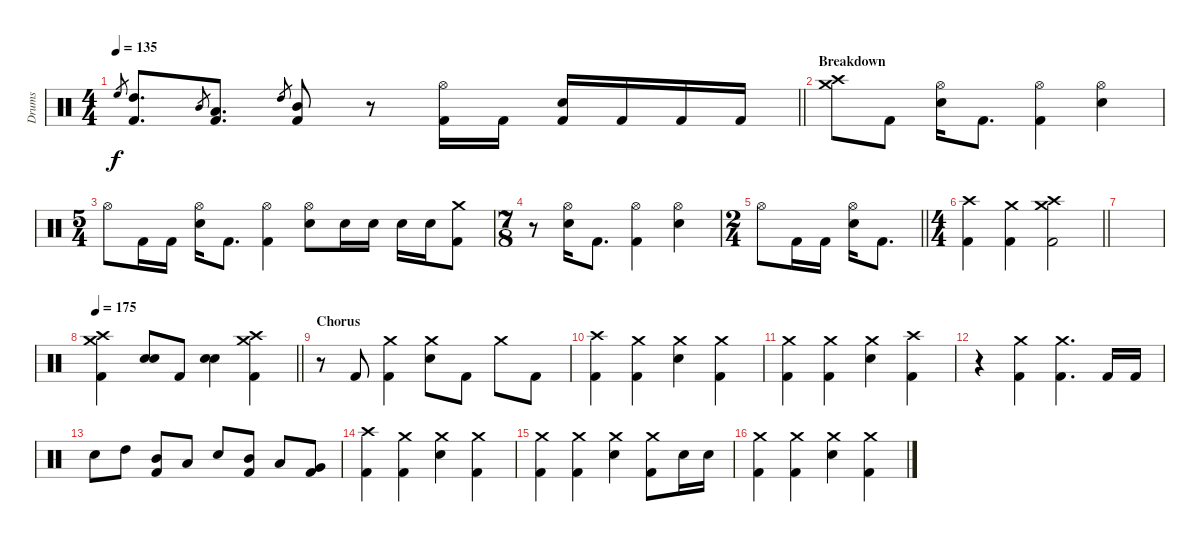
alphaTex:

\track ("Drums" "Drums") {instrument percussion}
\staff {score}
\articulation defaults
\ts (4 4)
\tempo 135
\clef neutral
\barLineRight lightlight
\ks c "High Floor Tom (hit)".8{gr dy f}
("High Tom (hit)" "Kick (hit) 2").8{d} "Mid Tom (hit)".8{gr} ("Low Tom (hit)" "Kick (hit) 2").8{d} "High Tom (hit)".8{gr} ("Mid Tom (hit)" "Kick (hit) 2").8 r.8 ("Hi-Hat (open)" "Kick (hit) 2").16 "Kick (hit) 2".16 ("Electric Snare (hit)" "Kick (hit) 2").16 "Kick (hit) 2".16 "Kick (hit) 2".16 "Kick (hit) 2".16 |
\section ("" "Breakdown")
("Crash high (hit)" "Crash medium (hit)").8 "Kick (hit) 2".8 ("Hi-Hat (open)" "Electric Snare (hit)").16 "Kick (hit) 2".8{d} ("Hi-Hat (open)" "Kick (hit) 2").4 ("Hi-Hat (open)" "Electric Snare (hit)").4 |
\ts (5 4)
"Hi-Hat (open)".8 "Kick (hit) 2".16 "Kick (hit) 2".16 ("Hi-Hat (open)" "Electric Snare (hit)").16 "Kick (hit) 2".8{d} ("Hi-Hat (open)" "Kick (hit) 2").4 ("Hi-Hat (open)" "Electric Snare (hit)").8 "Electric Snare (hit)".16 "Electric Snare (hit)".16 "Electric Snare (hit)".16 "Electric Snare (hit)".16 ("Crash medium (hit)" "Kick (hit) 2").8 |
\ts (7 8)
r.8 ("Hi-Hat (open)" "Electric Snare (hit)").16 "Kick (hit) 2".8{d} ("Hi-Hat (open)" "Kick (hit) 2").4 ("Hi-Hat (open)" "Electric Snare (hit)").4 |
\ts (2 4)
\barLineRight lightlight "Hi-Hat (open)".8 "Kick (hit) 2".16 "Kick (hit) 2".16
("Hi-Hat (open)" "Electric Snare (hit)").16 "Kick (hit) 2".8{d} |
\ts (4 4)
\section ("" "")
\barLineRight lightlight
("Crash high (hit)" "Kick (hit) 2").4 ("Crash medium (hit)" "Kick (hit) 2").4 ("Crash high (hit)" "Crash medium (hit)" "Kick (hit) 2").2 |
|
\tempo 175
\barLineRight lightlight
("Crash high (hit)" "Crash medium (hit)" "Kick (hit) 2").4 ("Electric Snare (hit)" "Electric Snare (hit)").8{bd 240} "Kick (hit) 2".8 ("Electric Snare (hit)" "Electric Snare (hit)").4{bd 240} ("Crash high (hit)" "Crash medium (hit)" "Kick (hit) 2").4 |
\section ("" "Chorus")
r.8 "Kick (hit) 2".8 ("Crash medium (hit)" "Kick (hit) 2").4 ("Crash medium (hit)" "Electric Snare (hit)").8 "Kick (hit) 2".8 "Crash medium (hit)".8 "Kick (hit) 2".8 |
("Crash high (hit)" "Kick (hit) 2").4 ("Crash medium (hit)" "Kick (hit) 2").4 ("Crash medium (hit)" "Electric Snare (hit)").4 ("Crash medium (hit)" "Kick (hit) 2").4 |
("Crash medium (hit)" "Kick (hit) 2").4 ("Crash medium (hit)" "Kick (hit) 2").4 ("Crash medium (hit)" "Electric Snare (hit)").4 ("Crash high (hit)" "Kick (hit) 2").4 |
r.4 ("Crash medium (hit)" "Kick (hit) 2").4 ("Crash medium (hit)" "Kick (hit) 2").4{d} "Kick (hit) 2".16 "Kick (hit) 2".16 |
"Electric Snare (hit)".8 "High Tom (hit)".8 ("Mid Tom (hit)" "Kick (hit) 2").8 "Low Tom (hit)".8 "Electric Snare (hit)".8 ("Mid Tom (hit)" "Kick (hit) 2").8 "Low Tom (hit)".8 ("Very Low Tom (hit)" "Kick (hit) 2").8 |
("Crash high (hit)" "Kick (hit) 2").4 ("Crash medium (hit)" "Kick (hit) 2").4 ("Crash medium (hit)" "Electric Snare (hit)").4 ("Crash medium (hit)" "Kick (hit) 2").4 |
("Crash medium (hit)" "Kick (hit) 2").4 ("Crash medium (hit)" "Kick (hit) 2").4 ("Crash medium (hit)" "Electric Snare (hit)").4 ("Crash medium (hit)" "Kick (hit) 2").8 "Electric Snare (hit)".16 "Electric Snare (hit)".16 |
("Crash medium (hit)" "Kick (hit) 2").4 ("Crash medium (hit)" "Kick (hit) 2").4 ("Crash medium (hit)" "Electric Snare (hit)").4 ("Crash medium (hit)" "Kick (hit) 2").4
